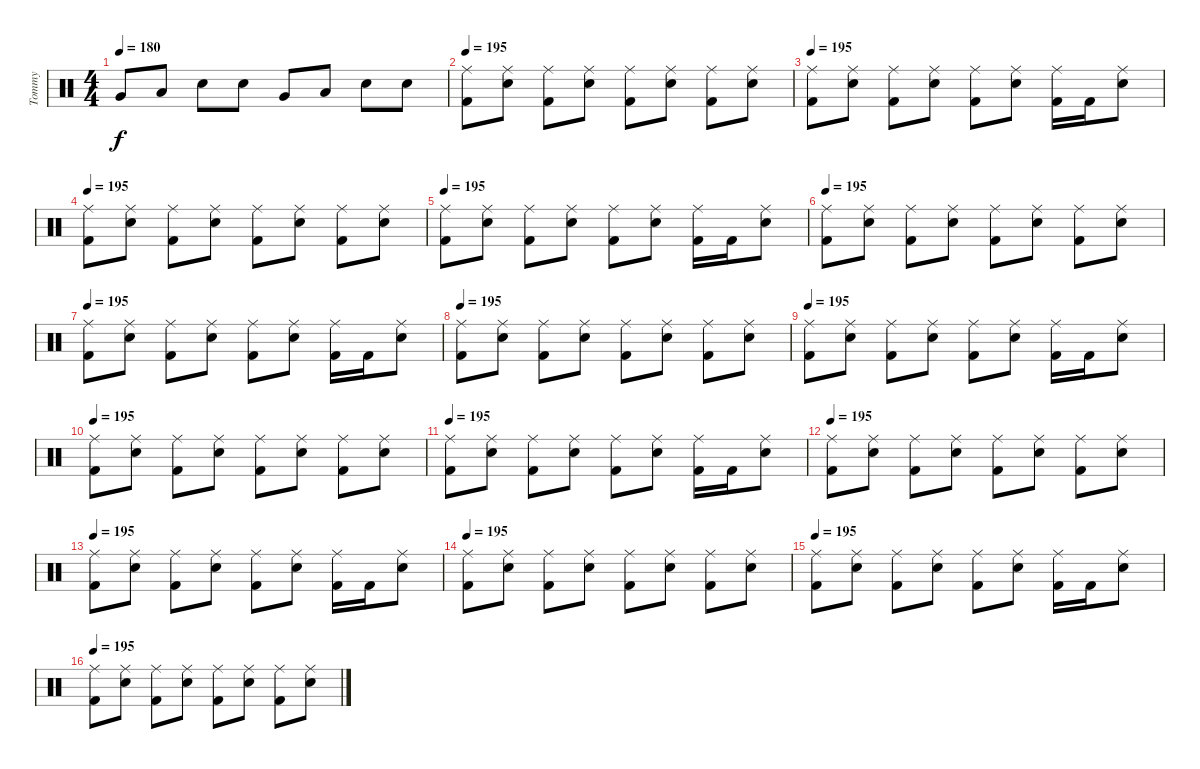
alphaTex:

\track ("Tommy" "Tommy") {instrument percussion}
\staff {score}
\articulation defaults
\ts (4 4)
\tempo 180
\clef neutral
\ks c "Very Low Tom (hit)".8{dy f} "Low Tom (hit)".8 "Snare (hit) 2".8 "Snare (hit) 2".8 "Very Low Tom (hit)".8 "Low Tom (hit)".8 "Snare (hit) 2".8 "Snare (hit) 2".8
|
\tempo 195
("Kick (hit) 2" "Ride (middle)").8 ("Snare (hit) 2" "Ride (middle)").8 ("Kick (hit) 2" "Ride (middle)").8 ("Snare (hit) 2" "Ride (middle)").8 ("Kick (hit) 2" "Ride (middle)").8 ("Snare (hit) 2" "Ride (middle)").8 ("Kick (hit) 2" "Ride (middle)").8 ("Snare (hit) 2" "Ride (middle)").8 |
\tempo 195
("Kick (hit) 2" "Ride (middle)").8 ("Snare (hit) 2" "Ride (middle)").8 ("Kick (hit) 2" "Ride (middle)").8 ("Snare (hit) 2" "Ride (middle)").8 ("Kick (hit) 2" "Ride (middle)").8 ("Snare (hit) 2" "Ride (middle)").8 ("Kick (hit) 2" "Ride (middle)").16 "Kick (hit) 2".16 ("Snare (hit) 2" "Ride (middle)").8 |
\tempo 195
("Kick (hit) 2" "Ride (middle)").8 ("Snare (hit) 2" "Ride (middle)").8 ("Kick (hit) 2" "Ride (middle)").8 ("Snare (hit) 2" "Ride (middle)").8 ("Kick (hit) 2" "Ride (middle)").8 ("Snare (hit) 2" "Ride (middle)").8 ("Kick (hit) 2" "Ride (middle)").8 ("Snare (hit) 2" "Ride (middle)").8 |
\tempo 195
("Kick (hit) 2" "Ride (middle)").8 ("Snare (hit) 2" "Ride (middle)").8 ("Kick (hit) 2" "Ride (middle)").8 ("Snare (hit) 2" "Ride (middle)").8 ("Kick (hit) 2" "Ride (middle)").8 ("Snare (hit) 2" "Ride (middle)").8 ("Kick (hit) 2" "Ride (middle)").16 "Kick (hit) 2".16 ("Snare (hit) 2" "Ride (middle)").8 |
\tempo 195
("Kick (hit) 2" "Ride (middle)").8 ("Snare (hit) 2" "Ride (middle)").8 ("Kick (hit) 2" "Ride (middle)").8 ("Snare (hit) 2" "Ride (middle)").8 ("Kick (hit) 2" "Ride (middle)").8 ("Snare (hit) 2" "Ride (middle)").8 ("Kick (hit) 2" "Ride (middle)").8 ("Snare (hit) 2" "Ride (middle)").8 |
\tempo 195
("Kick (hit) 2" "Ride (middle)").8 ("Snare (hit) 2" "Ride (middle)").8 ("Kick (hit) 2" "Ride (middle)").8 ("Snare (hit) 2" "Ride (middle)").8 ("Kick (hit) 2" "Ride (middle)").8 ("Snare (hit) 2" "Ride (middle)").8 ("Kick (hit) 2" "Ride (middle)").16 "Kick (hit) 2".16 ("Snare (hit) 2" "Ride (middle)").8 |
\tempo 195
("Kick (hit) 2" "Ride (middle)").8 ("Snare (hit) 2" "Ride (middle)").8 ("Kick (hit) 2" "Ride (middle)").8 ("Snare (hit) 2" "Ride (middle)").8 ("Kick (hit) 2" "Ride (middle)").8 ("Snare (hit) 2" "Ride (middle)").8 ("Kick (hit) 2" "Ride (middle)").8 ("Snare (hit) 2" "Ride (middle)").8 |
\tempo 195
("Kick (hit) 2" "Ride (middle)").8 ("Snare (hit) 2" "Ride (middle)").8 ("Kick (hit) 2" "Ride (middle)").8 ("Snare (hit) 2" "Ride (middle)").8 ("Kick (hit) 2" "Ride (middle)").8 ("Snare (hit) 2" "Ride (middle)").8 ("Kick (hit) 2" "Ride (middle)").16 "Kick (hit) 2".16 ("Snare (hit) 2" "Ride (middle)").8 |
\tempo 195
("Kick (hit) 2" "Ride (middle)").8 ("Snare (hit) 2" "Ride (middle)").8 ("Kick (hit) 2" "Ride (middle)").8 ("Snare (hit) 2" "Ride (middle)").8 ("Kick (hit) 2" "Ride (middle)").8 ("Snare (hit) 2" "Ride (middle)").8 ("Kick (hit) 2" "Ride (middle)").8 ("Snare (hit) 2" "Ride (middle)").8 |
\tempo 195
("Kick (hit) 2" "Ride (middle)").8 ("Snare (hit) 2" "Ride (middle)").8 ("Kick (hit) 2" "Ride (middle)").8 ("Snare (hit) 2" "Ride (middle)").8 ("Kick (hit) 2" "Ride (middle)").8 ("Snare (hit) 2" "Ride (middle)").8 ("Kick (hit) 2" "Ride (middle)").16 "Kick (hit) 2".16 ("Snare (hit) 2" "Ride (middle)").8 |
\tempo 195
("Kick (hit) 2" "Ride (middle)").8 ("Snare (hit) 2" "Ride (middle)").8 ("Kick (hit) 2" "Ride (middle)").8 ("Snare (hit) 2" "Ride (middle)").8 ("Kick (hit) 2" "Ride (middle)").8 ("Snare (hit) 2" "Ride (middle)").8 ("Kick (hit) 2" "Ride (middle)").8 ("Snare (hit) 2" "Ride (middle)").8 |
\tempo 195
("Kick (hit) 2" "Ride (middle)").8 ("Snare (hit) 2" "Ride (middle)").8 ("Kick (hit) 2" "Ride (middle)").8 ("Snare (hit) 2" "Ride (middle)").8 ("Kick (hit) 2" "Ride (middle)").8 ("Snare (hit) 2" "Ride (middle)").8 ("Kick (hit) 2" "Ride (middle)").16 "Kick (hit) 2".16 ("Snare (hit) 2" "Ride (middle)").8 |
\tempo 195
("Kick (hit) 2" "Ride (middle)").8 ("Snare (hit) 2" "Ride (middle)").8 ("Kick (hit) 2" "Ride (middle)").8 ("Snare (hit) 2" "Ride (middle)").8 ("Kick (hit) 2" "Ride (middle)").8 ("Snare (hit) 2" "Ride (middle)").8 ("Kick (hit) 2" "Ride (middle)").8 ("Snare (hit) 2" "Ride (middle)").8 |
\tempo 195
("Kick (hit) 2" "Ride (middle)").8 ("Snare (hit) 2" "Ride (middle)").8 ("Kick (hit) 2" "Ride (middle)").8 ("Snare (hit) 2" "Ride (middle)").8 ("Kick (hit) 2" "Ride (middle)").8 ("Snare (hit) 2" "Ride (middle)").8 ("Kick (hit) 2" "Ride (middle)").16 "Kick (hit) 2".16 ("Snare (hit) 2" "Ride (middle)").8 |
\tempo 195
("Kick (hit) 2" "Ride (middle)").8 ("Snare (hit) 2" "Ride (middle)").8 ("Kick (hit) 2" "Ride (middle)").8 ("Snare (hit) 2" "Ride (middle)").8 ("Kick (hit) 2" "Ride (middle)").8 ("Snare (hit) 2" "Ride (middle)").8 ("Kick (hit) 2" "Ride (middle)").8 ("Snare (hit) 2" "Ride (middle)").8
